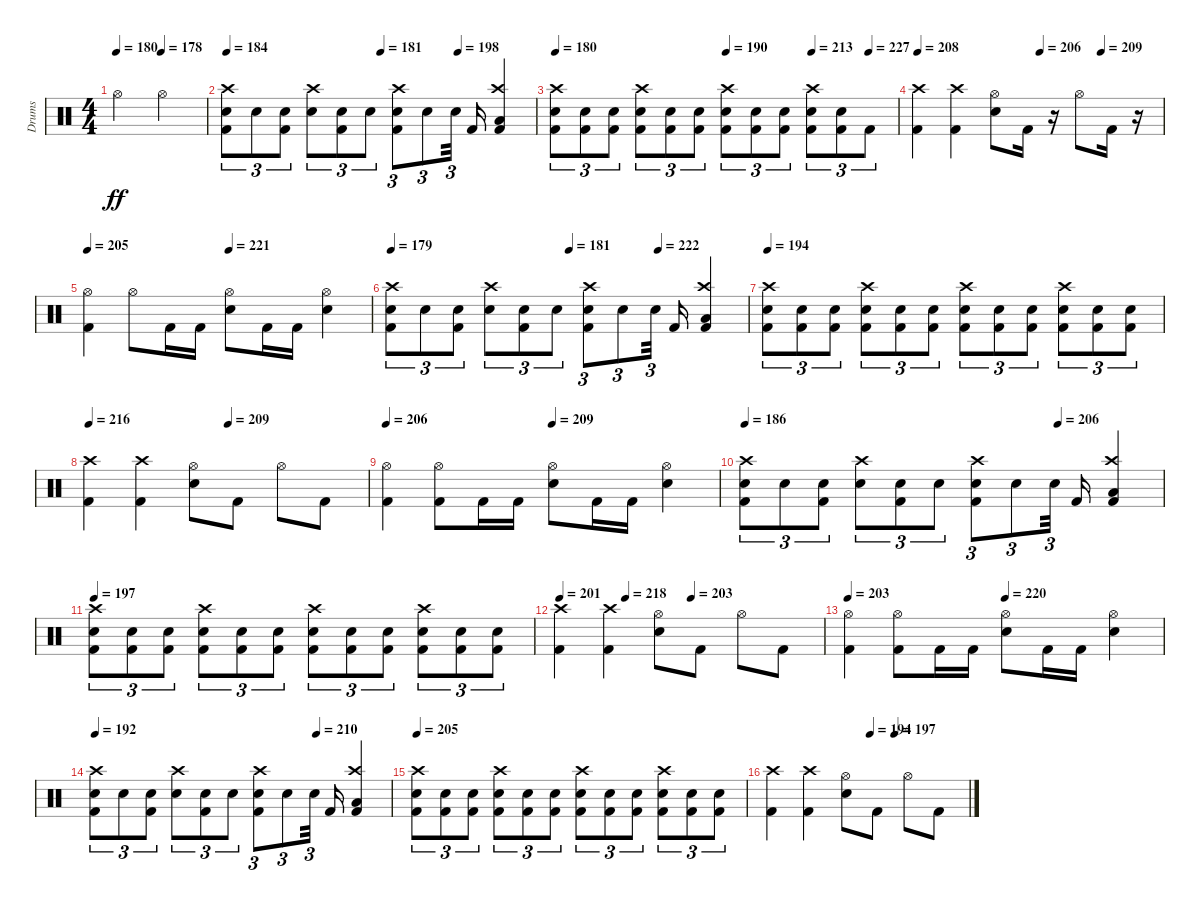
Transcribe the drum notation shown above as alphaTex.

\track ("Drums" "Drums") {instrument percussion}
\staff {score}
\articulation defaults
\ts (4 4)
\tempo 180
\tempo (178 0.5)
\clef neutral
\ks c "Hi-Hat (open)".2{dy ff} "Hi-Hat (open)".2
|
\tempo 184
\tempo (181 0.5)
\tempo (198 0.75)
("Kick (hit) 2" "Snare (hit) 2" "Crash high (hit)").8{tu (3 2)} "Snare (hit) 2".8{tu (3 2)} ("Kick (hit) 2" "Snare (hit) 2").8{tu (3 2)} ("Snare (hit) 2" "Crash high (hit)").8{tu (3 2)} ("Kick (hit) 2" "Snare (hit) 2").8{tu (3 2)} "Snare (hit) 2".8{tu (3 2)} ("Kick (hit) 2" "Snare (hit) 2" "Crash high (hit)").8{tu (3 2)} "Snare (hit) 2".8{tu (3 2)} "Snare (hit) 2".32{tu (3 2) beam splitsecondary} "Kick (hit) 2".16 ("Kick (hit) 2" "Low Floor Tom (hit)" "Crash high (hit)").4 |
\tempo 180
\tempo (190 0.5)
\tempo (213 0.75)
\tempo (227 0.9166666666666666)
("Kick (hit) 2" "Snare (hit) 2" "Crash high (hit)").8{tu (3 2)} ("Kick (hit) 2" "Snare (hit) 2").8{tu (3 2)} ("Kick (hit) 2" "Snare (hit) 2").8{tu (3 2)} ("Kick (hit) 2" "Snare (hit) 2" "Crash high (hit)").8{tu (3 2)} ("Kick (hit) 2" "Snare (hit) 2").8{tu (3 2)} ("Kick (hit) 2" "Snare (hit) 2").8{tu (3 2)} ("Kick (hit) 2" "Snare (hit) 2" "Crash high (hit)").8{tu (3 2)} ("Kick (hit) 2" "Snare (hit) 2").8{tu (3 2)} ("Kick (hit) 2" "Snare (hit) 2").8{tu (3 2)} ("Kick (hit) 2" "Snare (hit) 2" "Crash high (hit)").8{tu (3 2)} ("Kick (hit) 2" "Snare (hit) 2").8{tu (3 2)} "Kick (hit) 2".8{tu (3 2)} |
\tempo 208
\tempo (206 0.5)
\tempo (209 0.75)
("Kick (hit) 2" "Crash high (hit)").4 ("Kick (hit) 2" "Crash high (hit)").4 ("Snare (hit) 2" "Hi-Hat (open)").8 "Kick (hit) 2".16 r.16 "Hi-Hat (open)".8 "Kick (hit) 2".16 r.16 |
\tempo 205
\tempo (221 0.5)
("Kick (hit) 2" "Hi-Hat (open)").4 "Hi-Hat (open)".8 "Kick (hit) 2".16 "Kick (hit) 2".16 ("Snare (hit) 2" "Hi-Hat (open)").8 "Kick (hit) 2".16 "Kick (hit) 2".16 ("Snare (hit) 2" "Hi-Hat (open)").4 |
\tempo 179
\tempo (181 0.5)
\tempo (222 0.75)
("Kick (hit) 2" "Snare (hit) 2" "Crash high (hit)").8{tu (3 2)} "Snare (hit) 2".8{tu (3 2)} ("Kick (hit) 2" "Snare (hit) 2").8{tu (3 2)} ("Snare (hit) 2" "Crash high (hit)").8{tu (3 2)} ("Kick (hit) 2" "Snare (hit) 2").8{tu (3 2)} "Snare (hit) 2".8{tu (3 2)} ("Kick (hit) 2" "Snare (hit) 2" "Crash high (hit)").8{tu (3 2)} "Snare (hit) 2".8{tu (3 2)} "Snare (hit) 2".32{tu (3 2) beam splitsecondary} "Kick (hit) 2".16 ("Kick (hit) 2" "Low Floor Tom (hit)" "Crash high (hit)").4 |
\tempo 194
("Kick (hit) 2" "Snare (hit) 2" "Crash high (hit)").8{tu (3 2)} ("Kick (hit) 2" "Snare (hit) 2").8{tu (3 2)} ("Kick (hit) 2" "Snare (hit) 2").8{tu (3 2)} ("Kick (hit) 2" "Snare (hit) 2" "Crash high (hit)").8{tu (3 2)} ("Kick (hit) 2" "Snare (hit) 2").8{tu (3 2)} ("Kick (hit) 2" "Snare (hit) 2").8{tu (3 2)} ("Kick (hit) 2" "Snare (hit) 2" "Crash high (hit)").8{tu (3 2)} ("Kick (hit) 2" "Snare (hit) 2").8{tu (3 2)} ("Kick (hit) 2" "Snare (hit) 2").8{tu (3 2)} ("Kick (hit) 2" "Snare (hit) 2" "Crash high (hit)").8{tu (3 2)} ("Kick (hit) 2" "Snare (hit) 2").8{tu (3 2)} ("Kick (hit) 2" "Snare (hit) 2").8{tu (3 2)} |
\tempo 216
\tempo (209 0.5)
("Kick (hit) 2" "Crash high (hit)").4 ("Kick (hit) 2" "Crash high (hit)").4 ("Snare (hit) 2" "Hi-Hat (open)").8 "Kick (hit) 2".8 "Hi-Hat (open)".8 "Kick (hit) 2".8 |
\tempo 206
\tempo (209 0.5)
("Kick (hit) 2" "Hi-Hat (open)").4 ("Kick (hit) 2" "Hi-Hat (open)").8 "Kick (hit) 2".16 "Kick (hit) 2".16 ("Snare (hit) 2" "Hi-Hat (open)").8 "Kick (hit) 2".16 "Kick (hit) 2".16 ("Snare (hit) 2" "Hi-Hat (open)").4 |
\tempo 186
\tempo (206 0.75)
("Kick (hit) 2" "Snare (hit) 2" "Crash high (hit)").8{tu (3 2)} "Snare (hit) 2".8{tu (3 2)} ("Kick (hit) 2" "Snare (hit) 2").8{tu (3 2)} ("Snare (hit) 2" "Crash high (hit)").8{tu (3 2)} ("Kick (hit) 2" "Snare (hit) 2").8{tu (3 2)} "Snare (hit) 2".8{tu (3 2)} ("Kick (hit) 2" "Snare (hit) 2" "Crash high (hit)").8{tu (3 2)} "Snare (hit) 2".8{tu (3 2)} "Snare (hit) 2".32{tu (3 2) beam splitsecondary} "Kick (hit) 2".16 ("Kick (hit) 2" "Low Floor Tom (hit)" "Crash high (hit)").4 |
\tempo 197
("Kick (hit) 2" "Snare (hit) 2" "Crash high (hit)").8{tu (3 2)} ("Kick (hit) 2" "Snare (hit) 2").8{tu (3 2)} ("Kick (hit) 2" "Snare (hit) 2").8{tu (3 2)} ("Kick (hit) 2" "Snare (hit) 2" "Crash high (hit)").8{tu (3 2)} ("Kick (hit) 2" "Snare (hit) 2").8{tu (3 2)} ("Kick (hit) 2" "Snare (hit) 2").8{tu (3 2)} ("Kick (hit) 2" "Snare (hit) 2" "Crash high (hit)").8{tu (3 2)} ("Kick (hit) 2" "Snare (hit) 2").8{tu (3 2)} ("Kick (hit) 2" "Snare (hit) 2").8{tu (3 2)} ("Kick (hit) 2" "Snare (hit) 2" "Crash high (hit)").8{tu (3 2)} ("Kick (hit) 2" "Snare (hit) 2").8{tu (3 2)} ("Kick (hit) 2" "Snare (hit) 2").8{tu (3 2)} |
\tempo 201
\tempo (218 0.25)
\tempo (203 0.5)
("Kick (hit) 2" "Crash high (hit)").4 ("Kick (hit) 2" "Crash high (hit)").4 ("Snare (hit) 2" "Hi-Hat (open)").8 "Kick (hit) 2".8 "Hi-Hat (open)".8 "Kick (hit) 2".8 |
\tempo 203
\tempo (220 0.5)
("Kick (hit) 2" "Hi-Hat (open)").4 ("Kick (hit) 2" "Hi-Hat (open)").8 "Kick (hit) 2".16 "Kick (hit) 2".16 ("Snare (hit) 2" "Hi-Hat (open)").8 "Kick (hit) 2".16 "Kick (hit) 2".16 ("Snare (hit) 2" "Hi-Hat (open)").4 |
\tempo 192
\tempo (210 0.75)
("Kick (hit) 2" "Snare (hit) 2" "Crash high (hit)").8{tu (3 2)} "Snare (hit) 2".8{tu (3 2)} ("Kick (hit) 2" "Snare (hit) 2").8{tu (3 2)} ("Snare (hit) 2" "Crash high (hit)").8{tu (3 2)} ("Kick (hit) 2" "Snare (hit) 2").8{tu (3 2)} "Snare (hit) 2".8{tu (3 2)} ("Kick (hit) 2" "Snare (hit) 2" "Crash high (hit)").8{tu (3 2)} "Snare (hit) 2".8{tu (3 2)} "Snare (hit) 2".32{tu (3 2) beam splitsecondary} "Kick (hit) 2".16 ("Kick (hit) 2" "Low Floor Tom (hit)" "Crash high (hit)").4 |
\tempo 205
("Kick (hit) 2" "Snare (hit) 2" "Crash high (hit)").8{tu (3 2)} ("Kick (hit) 2" "Snare (hit) 2").8{tu (3 2)} ("Kick (hit) 2" "Snare (hit) 2").8{tu (3 2)} ("Kick (hit) 2" "Snare (hit) 2" "Crash high (hit)").8{tu (3 2)} ("Kick (hit) 2" "Snare (hit) 2").8{tu (3 2)} ("Kick (hit) 2" "Snare (hit) 2").8{tu (3 2)} ("Kick (hit) 2" "Snare (hit) 2" "Crash high (hit)").8{tu (3 2)} ("Kick (hit) 2" "Snare (hit) 2").8{tu (3 2)} ("Kick (hit) 2" "Snare (hit) 2").8{tu (3 2)} ("Kick (hit) 2" "Snare (hit) 2" "Crash high (hit)").8{tu (3 2)} ("Kick (hit) 2" "Snare (hit) 2").8{tu (3 2)} ("Kick (hit) 2" "Snare (hit) 2").8{tu (3 2)} |
\tempo (194 0.5)
\tempo (197 0.625)
("Kick (hit) 2" "Crash high (hit)").4 ("Kick (hit) 2" "Crash high (hit)").4 ("Snare (hit) 2" "Hi-Hat (open)").8 "Kick (hit) 2".8 "Hi-Hat (open)".8 "Kick (hit) 2".8
